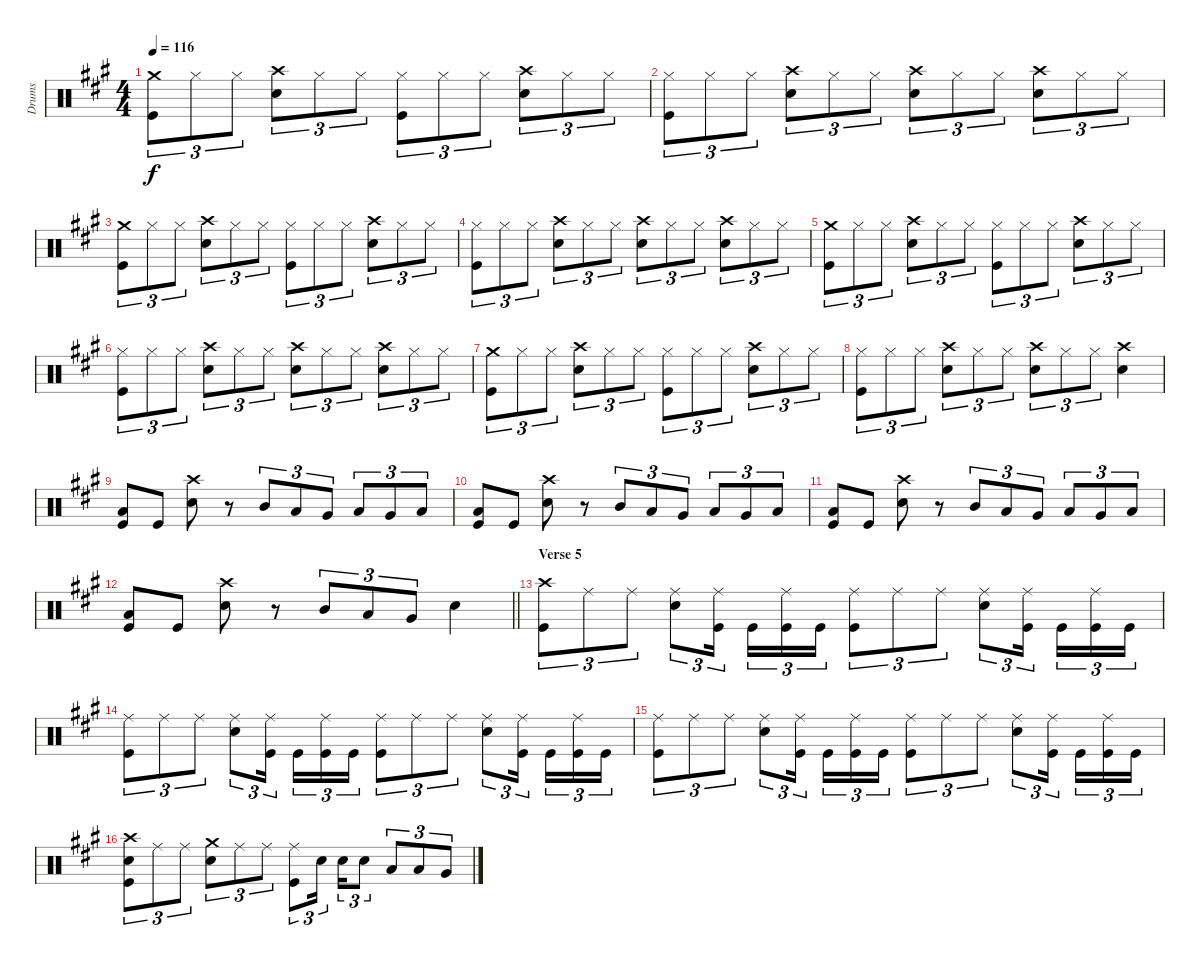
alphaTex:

\track ("Drums" "Drums") {instrument percussion}
\staff {score}
\articulation defaults
\ts (4 4)
\tempo 116
\clef neutral
\ks a
("Crash medium (hit)" "Kick (hit)").8{tu (3 2) dy f} "Hi-Hat (closed)".8{tu (3 2)} "Hi-Hat (closed)".8{tu (3 2)} ("Crash high (hit)" "Snare (hit) 2").8{tu (3 2)} "Hi-Hat (closed)".8{tu (3 2)} "Hi-Hat (closed)".8{tu (3 2)} ("Hi-Hat (closed)" "Kick (hit)").8{tu (3 2)} "Hi-Hat (closed)".8{tu (3 2)} "Hi-Hat (closed)".8{tu (3 2)} ("Crash high (hit)" "Snare (hit) 2").8{tu (3 2)} "Hi-Hat (closed)".8{tu (3 2)} "Hi-Hat (closed)".8{tu (3 2)} |
("Hi-Hat (closed)" "Kick (hit)").8{tu (3 2)} "Hi-Hat (closed)".8{tu (3 2)} "Hi-Hat (closed)".8{tu (3 2)} ("Crash high (hit)" "Snare (hit) 2").8{tu (3 2)} "Hi-Hat (closed)".8{tu (3 2)} "Hi-Hat (closed)".8{tu (3 2)} ("Crash high (hit)" "Snare (hit) 2").8{tu (3 2)} "Hi-Hat (closed)".8{tu (3 2)} "Hi-Hat (closed)".8{tu (3 2)} ("Crash high (hit)" "Snare (hit) 2").8{tu (3 2)} "Hi-Hat (closed)".8{tu (3 2)} "Hi-Hat (closed)".8{tu (3 2)} |
("Crash medium (hit)" "Kick (hit)").8{tu (3 2)} "Hi-Hat (closed)".8{tu (3 2)} "Hi-Hat (closed)".8{tu (3 2)} ("Crash high (hit)" "Snare (hit) 2").8{tu (3 2)} "Hi-Hat (closed)".8{tu (3 2)} "Hi-Hat (closed)".8{tu (3 2)} ("Hi-Hat (closed)" "Kick (hit)").8{tu (3 2)} "Hi-Hat (closed)".8{tu (3 2)} "Hi-Hat (closed)".8{tu (3 2)} ("Crash high (hit)" "Snare (hit) 2").8{tu (3 2)} "Hi-Hat (closed)".8{tu (3 2)} "Hi-Hat (closed)".8{tu (3 2)} |
("Hi-Hat (closed)" "Kick (hit)").8{tu (3 2)} "Hi-Hat (closed)".8{tu (3 2)} "Hi-Hat (closed)".8{tu (3 2)} ("Crash high (hit)" "Snare (hit) 2").8{tu (3 2)} "Hi-Hat (closed)".8{tu (3 2)} "Hi-Hat (closed)".8{tu (3 2)} ("Crash high (hit)" "Snare (hit) 2").8{tu (3 2)} "Hi-Hat (closed)".8{tu (3 2)} "Hi-Hat (closed)".8{tu (3 2)} ("Crash high (hit)" "Snare (hit) 2").8{tu (3 2)} "Hi-Hat (closed)".8{tu (3 2)} "Hi-Hat (closed)".8{tu (3 2)} |
("Crash medium (hit)" "Kick (hit)").8{tu (3 2)} "Hi-Hat (closed)".8{tu (3 2)} "Hi-Hat (closed)".8{tu (3 2)} ("Crash high (hit)" "Snare (hit) 2").8{tu (3 2)} "Hi-Hat (closed)".8{tu (3 2)} "Hi-Hat (closed)".8{tu (3 2)} ("Hi-Hat (closed)" "Kick (hit)").8{tu (3 2)} "Hi-Hat (closed)".8{tu (3 2)} "Hi-Hat (closed)".8{tu (3 2)} ("Crash high (hit)" "Snare (hit) 2").8{tu (3 2)} "Hi-Hat (closed)".8{tu (3 2)} "Hi-Hat (closed)".8{tu (3 2)} |
("Hi-Hat (closed)" "Kick (hit)").8{tu (3 2)} "Hi-Hat (closed)".8{tu (3 2)} "Hi-Hat (closed)".8{tu (3 2)} ("Crash high (hit)" "Snare (hit) 2").8{tu (3 2)} "Hi-Hat (closed)".8{tu (3 2)} "Hi-Hat (closed)".8{tu (3 2)} ("Crash high (hit)" "Snare (hit) 2").8{tu (3 2)} "Hi-Hat (closed)".8{tu (3 2)} "Hi-Hat (closed)".8{tu (3 2)} ("Crash high (hit)" "Snare (hit) 2").8{tu (3 2)} "Hi-Hat (closed)".8{tu (3 2)} "Hi-Hat (closed)".8{tu (3 2)} |
("Crash medium (hit)" "Kick (hit)").8{tu (3 2)} "Hi-Hat (closed)".8{tu (3 2)} "Hi-Hat (closed)".8{tu (3 2)} ("Crash high (hit)" "Snare (hit) 2").8{tu (3 2)} "Hi-Hat (closed)".8{tu (3 2)} "Hi-Hat (closed)".8{tu (3 2)} ("Hi-Hat (closed)" "Kick (hit)").8{tu (3 2)} "Hi-Hat (closed)".8{tu (3 2)} "Hi-Hat (closed)".8{tu (3 2)} ("Crash high (hit)" "Snare (hit) 2").8{tu (3 2)} "Hi-Hat (closed)".8{tu (3 2)} "Hi-Hat (closed)".8{tu (3 2)} |
("Hi-Hat (closed)" "Kick (hit)").8{tu (3 2)} "Hi-Hat (closed)".8{tu (3 2)} "Hi-Hat (closed)".8{tu (3 2)} ("Crash high (hit)" "Snare (hit) 2").8{tu (3 2)} "Hi-Hat (closed)".8{tu (3 2)} "Hi-Hat (closed)".8{tu (3 2)} ("Crash high (hit)" "Snare (hit) 2").8{tu (3 2)} "Hi-Hat (closed)".8{tu (3 2)} "Hi-Hat (closed)".8{tu (3 2)} ("Crash high (hit)" "Snare (hit) 2").4 |
("Low Floor Tom (hit)" "Kick (hit)").8 "Kick (hit)".8 ("Crash high (hit)" "Snare (hit) 2").8 r.8 "Mid Tom (hit)".8{tu (3 2)} "Low Tom (hit)".8{tu (3 2)} "Very Low Tom (hit)".8{tu (3 2)} "Low Tom (hit)".8{tu (3 2)} "Very Low Tom (hit)".8{tu (3 2)} "Low Floor Tom (hit)".8{tu (3 2)} |
("Low Floor Tom (hit)" "Kick (hit)").8 "Kick (hit)".8 ("Crash high (hit)" "Snare (hit) 2").8 r.8 "Mid Tom (hit)".8{tu (3 2)} "Low Tom (hit)".8{tu (3 2)} "Very Low Tom (hit)".8{tu (3 2)} "Low Tom (hit)".8{tu (3 2)} "Very Low Tom (hit)".8{tu (3 2)} "Low Floor Tom (hit)".8{tu (3 2)} |
("Low Floor Tom (hit)" "Kick (hit)").8 "Kick (hit)".8 ("Crash high (hit)" "Snare (hit) 2").8 r.8 "Mid Tom (hit)".8{tu (3 2)} "Low Tom (hit)".8{tu (3 2)} "Very Low Tom (hit)".8{tu (3 2)} "Low Tom (hit)".8{tu (3 2)} "Very Low Tom (hit)".8{tu (3 2)} "Low Floor Tom (hit)".8{tu (3 2)} |
\barLineRight lightlight
("Low Floor Tom (hit)" "Kick (hit)").8 "Kick (hit)".8 ("Crash high (hit)" "Snare (hit) 2").8 r.8 "Mid Tom (hit)".8{tu (3 2)} "Low Tom (hit)".8{tu (3 2)} "Very Low Tom (hit)".8{tu (3 2)} "Snare (hit) 2".4 |
\section ("" "Verse 5")
("Crash high (hit)" "Kick (hit)").8{tu (3 2)} "Ride (middle)".8{tu (3 2)} "Ride (middle)".8{tu (3 2)} ("Ride (middle)" "Snare (hit) 2").8{tu (3 2)} ("Ride (middle)" "Kick (hit)").16{tu (3 2) beam splitsecondary} "Kick (hit)".16{tu (3 2)} ("Ride (middle)" "Kick (hit)").16{tu (3 2)} "Kick (hit)".16{tu (3 2)} ("Ride (middle)" "Kick (hit)").8{tu (3 2)} "Ride (middle)".8{tu (3 2)} "Ride (middle)".8{tu (3 2)} ("Ride (middle)" "Snare (hit) 2").8{tu (3 2)} ("Ride (middle)" "Kick (hit)").16{tu (3 2) beam splitsecondary} "Kick (hit)".16{tu (3 2)} ("Ride (middle)" "Kick (hit)").16{tu (3 2)} "Kick (hit)".16{tu (3 2)} |
("Ride (middle)" "Kick (hit)").8{tu (3 2)} "Ride (middle)".8{tu (3 2)} "Ride (middle)".8{tu (3 2)} ("Ride (middle)" "Snare (hit) 2").8{tu (3 2)} ("Ride (middle)" "Kick (hit)").16{tu (3 2) beam splitsecondary} "Kick (hit)".16{tu (3 2)} ("Ride (middle)" "Kick (hit)").16{tu (3 2)} "Kick (hit)".16{tu (3 2)} ("Ride (middle)" "Kick (hit)").8{tu (3 2)} "Ride (middle)".8{tu (3 2)} "Ride (middle)".8{tu (3 2)} ("Ride (middle)" "Snare (hit) 2").8{tu (3 2)} ("Ride (middle)" "Kick (hit)").16{tu (3 2) beam splitsecondary} "Kick (hit)".16{tu (3 2)} ("Ride (middle)" "Kick (hit)").16{tu (3 2)} "Kick (hit)".16{tu (3 2)} |
("Ride (middle)" "Kick (hit)").8{tu (3 2)} "Ride (middle)".8{tu (3 2)} "Ride (middle)".8{tu (3 2)} ("Ride (middle)" "Snare (hit) 2").8{tu (3 2)} ("Ride (middle)" "Kick (hit)").16{tu (3 2) beam splitsecondary} "Kick (hit)".16{tu (3 2)} ("Ride (middle)" "Kick (hit)").16{tu (3 2)} "Kick (hit)".16{tu (3 2)} ("Ride (middle)" "Kick (hit)").8{tu (3 2)} "Ride (middle)".8{tu (3 2)} "Ride (middle)".8{tu (3 2)} ("Ride (middle)" "Snare (hit) 2").8{tu (3 2)} ("Ride (middle)" "Kick (hit)").16{tu (3 2) beam splitsecondary} "Kick (hit)".16{tu (3 2)} ("Ride (middle)" "Kick (hit)").16{tu (3 2)} "Kick (hit)".16{tu (3 2)} |
("Crash high (hit)" "Snare (hit) 2" "Kick (hit)").8{tu (3 2)} "Ride (middle)".8{tu (3 2)} "Ride (middle)".8{tu (3 2)} ("Crash medium (hit)" "Snare (hit) 2").8{tu (3 2)} "Ride (middle)".8{tu (3 2)} "Ride (middle)".8{tu (3 2)} ("Ride (middle)" "Kick (hit)").8{tu (3 2)} "Snare (hit) 2".16{tu (3 2) beam splitsecondary} "Snare (hit) 2".16{tu (3 2)} "Snare (hit) 2".8{tu (3 2)} "Low Tom (hit)".8{tu (3 2)} "Low Tom (hit)".8{tu (3 2)} "Very Low Tom (hit)".8{tu (3 2)}
